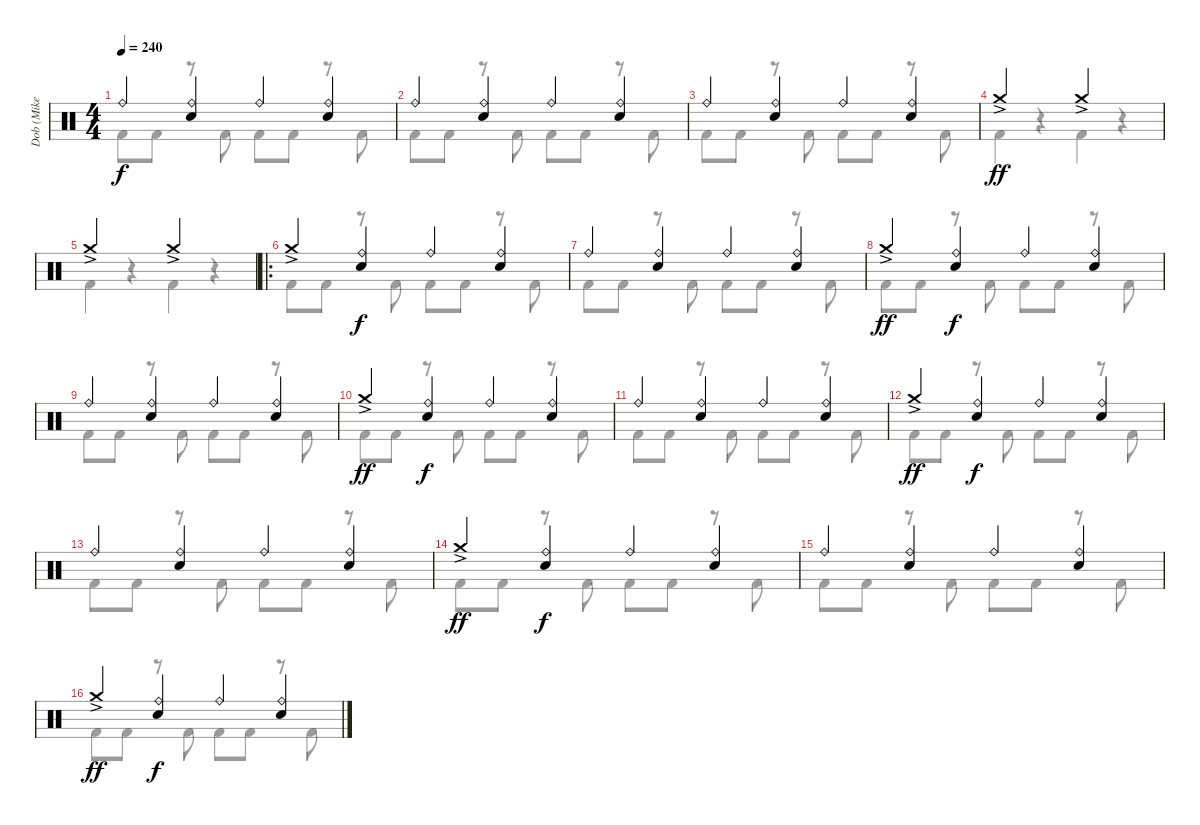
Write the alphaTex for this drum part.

\track ("Dob (Mike Terrana)" "Dob (Mike ") {instrument percussion}
\staff {score}
\articulation defaults
\voice
\ts (4 4)
\tempo 240
\clef neutral
\ks c "Ride (bell)".4{dy f}
("Ride (bell)" "Electric Snare (hit)").4 "Ride (bell)".4 ("Ride (bell)" "Electric Snare (hit)").4 |
"Ride (bell)".4 ("Ride (bell)" "Electric Snare (hit)").4 "Ride (bell)".4 ("Ride (bell)" "Electric Snare (hit)").4 |
"Ride (bell)".4 ("Ride (bell)" "Electric Snare (hit)").4 "Ride (bell)".4 ("Ride (bell)" "Electric Snare (hit)").4 |
"Crash medium (hit)"{ac}.2{dy ff} "Crash medium (hit)"{ac}.2 |
"Crash medium (hit)"{ac}.2 "Crash medium (hit)"{ac}.2 |
\ro "Crash medium (hit)"{ac}.4
("Ride (bell)" "Electric Snare (hit)").4{dy f} "Ride (bell)".4 ("Ride (bell)" "Electric Snare (hit)").4 |
"Ride (bell)".4 ("Ride (bell)" "Electric Snare (hit)").4 "Ride (bell)".4 ("Ride (bell)" "Electric Snare (hit)").4 |
"Crash medium (hit)"{ac}.4{dy ff} ("Ride (bell)" "Electric Snare (hit)").4{dy f} "Ride (bell)".4 ("Ride (bell)" "Electric Snare (hit)").4 |
"Ride (bell)".4 ("Ride (bell)" "Electric Snare (hit)").4 "Ride (bell)".4 ("Ride (bell)" "Electric Snare (hit)").4 |
"Crash medium (hit)"{ac}.4{dy ff} ("Ride (bell)" "Electric Snare (hit)").4{dy f} "Ride (bell)".4 ("Ride (bell)" "Electric Snare (hit)").4 |
"Ride (bell)".4 ("Ride (bell)" "Electric Snare (hit)").4 "Ride (bell)".4 ("Ride (bell)" "Electric Snare (hit)").4 |
"Crash medium (hit)"{ac}.4{dy ff} ("Ride (bell)" "Electric Snare (hit)").4{dy f} "Ride (bell)".4 ("Ride (bell)" "Electric Snare (hit)").4 |
"Ride (bell)".4 ("Ride (bell)" "Electric Snare (hit)").4 "Ride (bell)".4 ("Ride (bell)" "Electric Snare (hit)").4 |
"Crash medium (hit)"{ac}.4{dy ff} ("Ride (bell)" "Electric Snare (hit)").4{dy f} "Ride (bell)".4 ("Ride (bell)" "Electric Snare (hit)").4 |
"Ride (bell)".4 ("Ride (bell)" "Electric Snare (hit)").4 "Ride (bell)".4 ("Ride (bell)" "Electric Snare (hit)").4 |
"Crash medium (hit)"{ac}.4{dy ff} ("Ride (bell)" "Electric Snare (hit)").4{dy f} "Ride (bell)".4 ("Ride (bell)" "Electric Snare (hit)").4
\voice
\clef neutral
\ottava regular
\simile none
\ks c "Kick (hit) 2".8{dy f} "Kick (hit) 2".8
r.8 "Kick (hit) 2".8 "Kick (hit) 2".8 "Kick (hit) 2".8 r.8 "Kick (hit) 2".8 |
"Kick (hit) 2".8 "Kick (hit) 2".8 r.8 "Kick (hit) 2".8 "Kick (hit) 2".8 "Kick (hit) 2".8 r.8 "Kick (hit) 2".8 |
"Kick (hit) 2".8 "Kick (hit) 2".8 r.8 "Kick (hit) 2".8 "Kick (hit) 2".8 "Kick (hit) 2".8 r.8 "Kick (hit) 2".8 |
"Kick (hit) 2".4 r.4 "Kick (hit) 2".4 r.4 |
"Kick (hit) 2".4 r.4 "Kick (hit) 2".4 r.4 |
"Kick (hit) 2".8 "Kick (hit) 2".8 r.8 "Kick (hit) 2".8 "Kick (hit) 2".8 "Kick (hit) 2".8 r.8 "Kick (hit) 2".8 |
"Kick (hit) 2".8 "Kick (hit) 2".8 r.8 "Kick (hit) 2".8 "Kick (hit) 2".8 "Kick (hit) 2".8 r.8 "Kick (hit) 2".8 |
"Kick (hit) 2".8 "Kick (hit) 2".8 r.8 "Kick (hit) 2".8 "Kick (hit) 2".8 "Kick (hit) 2".8 r.8 "Kick (hit) 2".8 |
"Kick (hit) 2".8 "Kick (hit) 2".8 r.8 "Kick (hit) 2".8 "Kick (hit) 2".8 "Kick (hit) 2".8 r.8 "Kick (hit) 2".8 |
"Kick (hit) 2".8 "Kick (hit) 2".8 r.8 "Kick (hit) 2".8 "Kick (hit) 2".8 "Kick (hit) 2".8 r.8 "Kick (hit) 2".8 |
"Kick (hit) 2".8 "Kick (hit) 2".8 r.8 "Kick (hit) 2".8 "Kick (hit) 2".8 "Kick (hit) 2".8 r.8 "Kick (hit) 2".8 |
"Kick (hit) 2".8 "Kick (hit) 2".8 r.8 "Kick (hit) 2".8 "Kick (hit) 2".8 "Kick (hit) 2".8 r.8 "Kick (hit) 2".8 |
"Kick (hit) 2".8 "Kick (hit) 2".8 r.8 "Kick (hit) 2".8 "Kick (hit) 2".8 "Kick (hit) 2".8 r.8 "Kick (hit) 2".8 |
"Kick (hit) 2".8 "Kick (hit) 2".8 r.8 "Kick (hit) 2".8 "Kick (hit) 2".8 "Kick (hit) 2".8 r.8 "Kick (hit) 2".8 |
"Kick (hit) 2".8 "Kick (hit) 2".8 r.8 "Kick (hit) 2".8 "Kick (hit) 2".8 "Kick (hit) 2".8 r.8 "Kick (hit) 2".8 |
"Kick (hit) 2".8 "Kick (hit) 2".8 r.8 "Kick (hit) 2".8 "Kick (hit) 2".8 "Kick (hit) 2".8 r.8 "Kick (hit) 2".8
